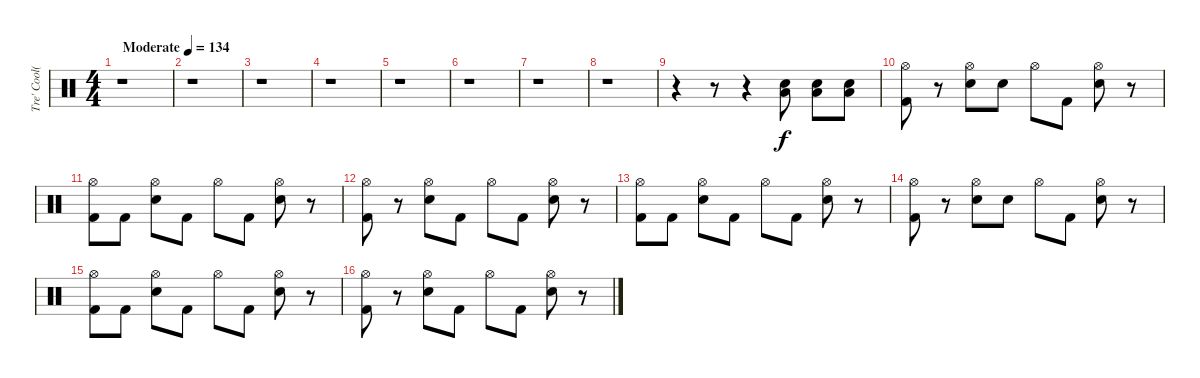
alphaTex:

\track ("Tre' Cool(Drums)" "Tre' Cool(") {instrument percussion}
\staff {score}
\articulation defaults
\ts (4 4)
\tempo (134 "Moderate")
\clef neutral
\ks c
r.1{dy f} |
r.1 |
r.1 |
r.1 |
r.1 |
r.1 |
r.1 |
r.1 |
r.4 r.8 r.4 ("Low Floor Tom (hit)" "Electric Snare (hit)").8 ("Low Floor Tom (hit)" "Electric Snare (hit)").8 ("Low Floor Tom (hit)" "Electric Snare (hit)").8 |
("Kick (hit) 2" "Hi-Hat (open)").8 r.8 ("Electric Snare (hit)" "Hi-Hat (open)").8 "Electric Snare (hit)".8 "Hi-Hat (open)".8 "Kick (hit) 2".8 ("Electric Snare (hit)" "Hi-Hat (open)").8 r.8 |
("Kick (hit) 2" "Hi-Hat (open)").8 "Kick (hit) 2".8 ("Electric Snare (hit)" "Hi-Hat (open)").8 "Kick (hit) 2".8 "Hi-Hat (open)".8 "Kick (hit) 2".8 ("Electric Snare (hit)" "Hi-Hat (open)").8 r.8 |
("Kick (hit) 2" "Hi-Hat (open)").8 r.8 ("Electric Snare (hit)" "Hi-Hat (open)").8 "Kick (hit) 2".8 "Hi-Hat (open)".8 "Kick (hit) 2".8 ("Electric Snare (hit)" "Hi-Hat (open)").8 r.8 |
("Kick (hit) 2" "Hi-Hat (open)").8 "Kick (hit) 2".8 ("Electric Snare (hit)" "Hi-Hat (open)").8 "Kick (hit) 2".8 "Hi-Hat (open)".8 "Kick (hit) 2".8 ("Electric Snare (hit)" "Hi-Hat (open)").8 r.8 |
("Kick (hit) 2" "Hi-Hat (open)").8 r.8 ("Electric Snare (hit)" "Hi-Hat (open)").8 "Electric Snare (hit)".8 "Hi-Hat (open)".8 "Kick (hit) 2".8 ("Electric Snare (hit)" "Hi-Hat (open)").8 r.8 |
("Kick (hit) 2" "Hi-Hat (open)").8 "Kick (hit) 2".8 ("Electric Snare (hit)" "Hi-Hat (open)").8 "Kick (hit) 2".8 "Hi-Hat (open)".8 "Kick (hit) 2".8 ("Electric Snare (hit)" "Hi-Hat (open)").8 r.8 |
("Kick (hit) 2" "Hi-Hat (open)").8 r.8 ("Electric Snare (hit)" "Hi-Hat (open)").8 "Kick (hit) 2".8 "Hi-Hat (open)".8 "Kick (hit) 2".8 ("Electric Snare (hit)" "Hi-Hat (open)").8 r.8
